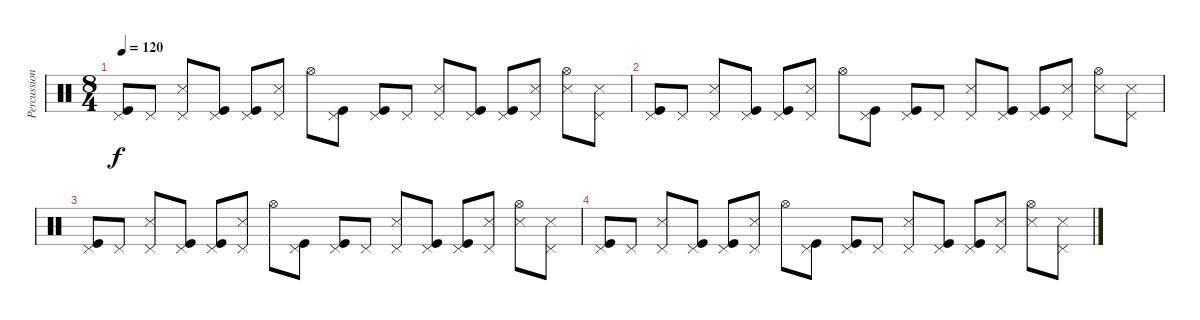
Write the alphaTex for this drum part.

\track ("Percussion" "Percussion") {instrument percussion}
\staff {score}
\articulation defaults
\ts (8 4)
\tempo 120
\clef neutral
\ks c
("Pedal Hi-Hat (hit)" "Kick (hit)").8{dy f} "Pedal Hi-Hat (hit)".8 ("Pedal Hi-Hat (hit)" "Snare (side stick) 3").8 ("Pedal Hi-Hat (hit)" "Kick (hit)").8 ("Pedal Hi-Hat (hit)" "Kick (hit)").8 ("Pedal Hi-Hat (hit)" "Snare (side stick) 3").8 "Hi-Hat (open)".8 ("Pedal Hi-Hat (hit)" "Kick (hit)").8 ("Pedal Hi-Hat (hit)" "Kick (hit)").8 "Pedal Hi-Hat (hit)".8 ("Pedal Hi-Hat (hit)" "Snare (side stick) 3").8 ("Pedal Hi-Hat (hit)" "Kick (hit)").8 ("Pedal Hi-Hat (hit)" "Kick (hit)").8 ("Pedal Hi-Hat (hit)" "Snare (side stick) 3").8 ("Hi-Hat (open)" "Snare (side stick) 3").8 ("Pedal Hi-Hat (hit)" "Snare (side stick) 3").8 |
("Pedal Hi-Hat (hit)" "Kick (hit)").8 "Pedal Hi-Hat (hit)".8 ("Pedal Hi-Hat (hit)" "Snare (side stick) 3").8 ("Pedal Hi-Hat (hit)" "Kick (hit)").8 ("Pedal Hi-Hat (hit)" "Kick (hit)").8 ("Pedal Hi-Hat (hit)" "Snare (side stick) 3").8 "Hi-Hat (open)".8 ("Pedal Hi-Hat (hit)" "Kick (hit)").8 ("Pedal Hi-Hat (hit)" "Kick (hit)").8 "Pedal Hi-Hat (hit)".8 ("Pedal Hi-Hat (hit)" "Snare (side stick) 3").8 ("Pedal Hi-Hat (hit)" "Kick (hit)").8 ("Pedal Hi-Hat (hit)" "Kick (hit)").8 ("Pedal Hi-Hat (hit)" "Snare (side stick) 3").8 ("Hi-Hat (open)" "Snare (side stick) 3").8 ("Pedal Hi-Hat (hit)" "Snare (side stick) 3").8 |
("Pedal Hi-Hat (hit)" "Kick (hit)").8 "Pedal Hi-Hat (hit)".8 ("Pedal Hi-Hat (hit)" "Snare (side stick) 3").8 ("Pedal Hi-Hat (hit)" "Kick (hit)").8 ("Pedal Hi-Hat (hit)" "Kick (hit)").8 ("Pedal Hi-Hat (hit)" "Snare (side stick) 3").8 "Hi-Hat (open)".8 ("Pedal Hi-Hat (hit)" "Kick (hit)").8 ("Pedal Hi-Hat (hit)" "Kick (hit)").8 "Pedal Hi-Hat (hit)".8 ("Pedal Hi-Hat (hit)" "Snare (side stick) 3").8 ("Pedal Hi-Hat (hit)" "Kick (hit)").8 ("Pedal Hi-Hat (hit)" "Kick (hit)").8 ("Pedal Hi-Hat (hit)" "Snare (side stick) 3").8 ("Hi-Hat (open)" "Snare (side stick) 3").8 ("Pedal Hi-Hat (hit)" "Snare (side stick) 3").8 |
("Pedal Hi-Hat (hit)" "Kick (hit)").8 "Pedal Hi-Hat (hit)".8 ("Pedal Hi-Hat (hit)" "Snare (side stick) 3").8 ("Pedal Hi-Hat (hit)" "Kick (hit)").8 ("Pedal Hi-Hat (hit)" "Kick (hit)").8 ("Pedal Hi-Hat (hit)" "Snare (side stick) 3").8 "Hi-Hat (open)".8 ("Pedal Hi-Hat (hit)" "Kick (hit)").8 ("Pedal Hi-Hat (hit)" "Kick (hit)").8 "Pedal Hi-Hat (hit)".8 ("Pedal Hi-Hat (hit)" "Snare (side stick) 3").8 ("Pedal Hi-Hat (hit)" "Kick (hit)").8 ("Pedal Hi-Hat (hit)" "Kick (hit)").8 ("Pedal Hi-Hat (hit)" "Snare (side stick) 3").8 ("Hi-Hat (open)" "Snare (side stick) 3").8 ("Pedal Hi-Hat (hit)" "Snare (side stick) 3").8
